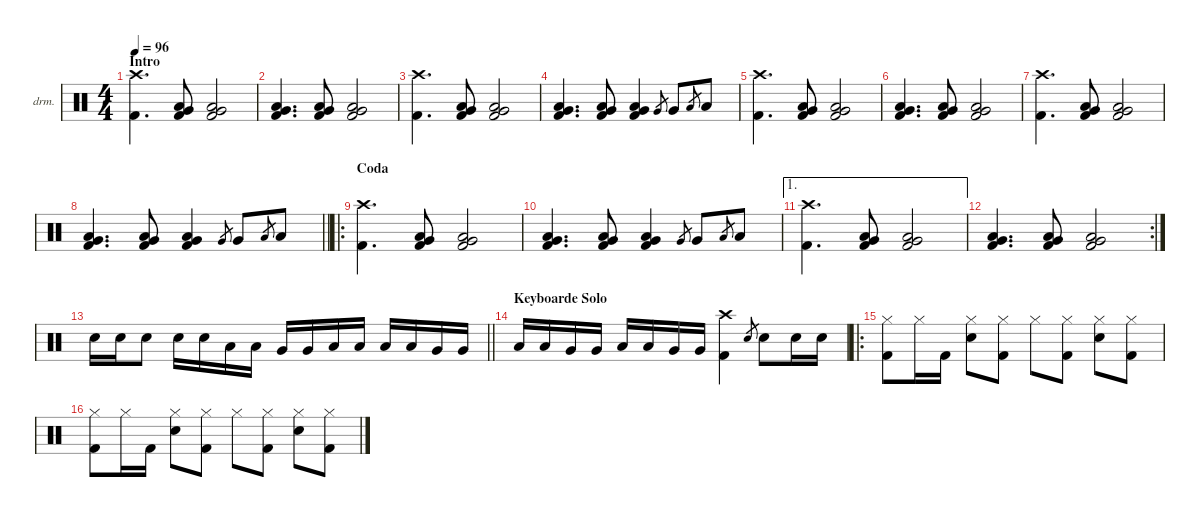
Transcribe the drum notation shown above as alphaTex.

\defaultSystemsLayout 4
\hideDynamics
\bracketExtendMode nobrackets
\firstSystemTrackNameOrientation horizontal
\otherSystemsTrackNameOrientation horizontal
\track ("Drums" "drm.") {instrument percussion}
\staff {score}
\articulation defaults
\ts (4 4)
\beaming (8 2 2 2 2)
\section ("" "Intro")
\tempo 96
\clef neutral
\ks c
("Crash high (hit)" "Kick (hit) 2").4{d dy f} ("Very Low Tom (hit)" "Low Tom (hit)" "Kick (hit) 2").8 ("Very Low Tom (hit)" "Low Tom (hit)" "Kick (hit) 2").2 |
("Very Low Tom (hit)" "Low Tom (hit)" "Kick (hit) 2").4{d} ("Very Low Tom (hit)" "Low Tom (hit)" "Kick (hit) 2").8 ("Very Low Tom (hit)" "Low Tom (hit)" "Kick (hit) 2").2 |
("Crash high (hit)" "Kick (hit) 2").4{d} ("Very Low Tom (hit)" "Low Tom (hit)" "Kick (hit) 2").8 ("Very Low Tom (hit)" "Low Tom (hit)" "Kick (hit) 2").2 |
("Very Low Tom (hit)" "Low Tom (hit)" "Kick (hit) 2").4{d} ("Very Low Tom (hit)" "Low Tom (hit)" "Kick (hit) 2").8 ("Very Low Tom (hit)" "Low Tom (hit)" "Kick (hit) 2").4 "Very Low Tom (hit)".8{gr dy mf} "Very Low Tom (hit)".8{dy f} "Low Floor Tom (hit)".8{gr dy mf} "Low Floor Tom (hit)".8{dy f} |
("Crash high (hit)" "Kick (hit) 2").4{d} ("Very Low Tom (hit)" "Low Tom (hit)" "Kick (hit) 2").8 ("Very Low Tom (hit)" "Low Tom (hit)" "Kick (hit) 2").2 |
("Very Low Tom (hit)" "Low Tom (hit)" "Kick (hit) 2").4{d} ("Very Low Tom (hit)" "Low Tom (hit)" "Kick (hit) 2").8 ("Very Low Tom (hit)" "Low Tom (hit)" "Kick (hit) 2").2 |
("Crash high (hit)" "Kick (hit) 2").4{d} ("Very Low Tom (hit)" "Low Tom (hit)" "Kick (hit) 2").8 ("Very Low Tom (hit)" "Low Tom (hit)" "Kick (hit) 2").2 |
\barLineRight lightlight
("Very Low Tom (hit)" "Low Tom (hit)" "Kick (hit) 2").4{d} ("Very Low Tom (hit)" "Low Tom (hit)" "Kick (hit) 2").8 ("Very Low Tom (hit)" "Low Tom (hit)" "Kick (hit) 2").4 "Very Low Tom (hit)".8{gr dy mf} "Very Low Tom (hit)".8{dy f} "Low Floor Tom (hit)".8{gr dy mf} "Low Floor Tom (hit)".8{dy f} |
\ro
\section ("" "Coda")
("Crash high (hit)" "Kick (hit) 2").4{d} ("Very Low Tom (hit)" "Low Tom (hit)" "Kick (hit) 2").8 ("Very Low Tom (hit)" "Low Tom (hit)" "Kick (hit) 2").2 |
("Very Low Tom (hit)" "Low Tom (hit)" "Kick (hit) 2").4{d} ("Very Low Tom (hit)" "Low Tom (hit)" "Kick (hit) 2").8 ("Very Low Tom (hit)" "Low Tom (hit)" "Kick (hit) 2").4 "Very Low Tom (hit)".8{gr dy mf} "Very Low Tom (hit)".8{dy f} "Low Floor Tom (hit)".8{gr dy mf} "Low Floor Tom (hit)".8{dy f} |
\ae 1
("Crash high (hit)" "Kick (hit) 2").4{d} ("Very Low Tom (hit)" "Low Tom (hit)" "Kick (hit) 2").8 ("Very Low Tom (hit)" "Low Tom (hit)" "Kick (hit) 2").2 |
\rc 2
("Very Low Tom (hit)" "Low Tom (hit)" "Kick (hit) 2").4{d} ("Very Low Tom (hit)" "Low Tom (hit)" "Kick (hit) 2").8 ("Very Low Tom (hit)" "Low Tom (hit)" "Kick (hit) 2").2 |
\barLineRight lightlight "Snare (hit) 2".16 "Snare (hit) 2".16 "Snare (hit) 2".8 "Snare (hit) 2".16 "Snare (hit) 2".16 "Low Tom (hit)".16 "Low Tom (hit)".16 "Very Low Tom (hit)".16 "Very Low Tom (hit)".16 "Low Floor Tom (hit)".16 "Low Floor Tom (hit)".16 "Low Tom (hit)".16 "Low Tom (hit)".16 "Very Low Tom (hit)".16 "Very Low Tom (hit)".16
|
\section ("" "Keyboarde Solo")
"Low Floor Tom (hit)".16 "Low Floor Tom (hit)".16 "Very Low Tom (hit)".16 "Very Low Tom (hit)".16 "Low Tom (hit)".16 "Low Tom (hit)".16 "Very Low Tom (hit)".16 "Very Low Tom (hit)".16 ("Crash high (hit)" "Kick (hit) 2").4 "Snare (hit) 2".8{gr dy mf} "Snare (hit) 2".8{dy f} "Snare (hit) 2".16 "Snare (hit) 2".16 |
\ro
("Hi-Hat (closed)" "Kick (hit) 2").8 "Hi-Hat (closed)".16 "Kick (hit) 2".16 ("Hi-Hat (closed)" "Snare (hit) 2").8 ("Hi-Hat (closed)" "Kick (hit) 2").8 "Hi-Hat (closed)".8 ("Hi-Hat (closed)" "Kick (hit) 2").8 ("Hi-Hat (closed)" "Snare (hit) 2").8 ("Hi-Hat (closed)" "Kick (hit) 2").8 |
("Hi-Hat (closed)" "Kick (hit) 2").8 "Hi-Hat (closed)".16 "Kick (hit) 2".16 ("Hi-Hat (closed)" "Snare (hit) 2").8 ("Hi-Hat (closed)" "Kick (hit) 2").8 "Hi-Hat (closed)".8 ("Hi-Hat (closed)" "Kick (hit) 2").8 ("Hi-Hat (closed)" "Snare (hit) 2").8 ("Hi-Hat (closed)" "Kick (hit) 2").8
